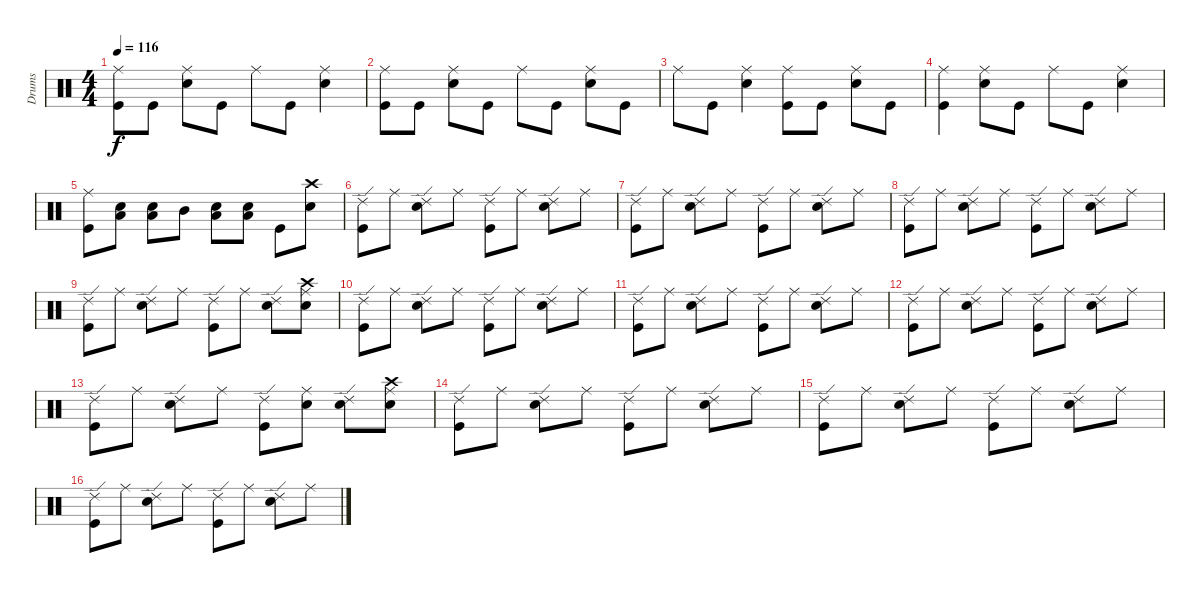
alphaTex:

\track ("Drums" "Drums") {instrument percussion}
\staff {score}
\articulation defaults
\ts (4 4)
\tempo 116
\clef neutral
\ks c
("Ride (middle)" "Kick (hit)").8{dy f} "Kick (hit)".8 ("Ride (middle)" "Electric Snare (hit)").8 "Kick (hit)".8 "Ride (middle)".8 "Kick (hit)".8 ("Ride (middle)" "Electric Snare (hit)").4 |
("Ride (middle)" "Kick (hit)").8 "Kick (hit)".8 ("Ride (middle)" "Electric Snare (hit)").8 "Kick (hit)".8 "Ride (middle)".8 "Kick (hit)".8 ("Ride (middle)" "Electric Snare (hit)").8 "Kick (hit)".8 |
"Ride (middle)".8 "Kick (hit)".8 ("Ride (middle)" "Electric Snare (hit)").4 ("Ride (middle)" "Kick (hit)").8 "Kick (hit)".8 ("Ride (middle)" "Electric Snare (hit)").8 "Kick (hit)".8 |
("Ride (middle)" "Kick (hit)").4 ("Ride (middle)" "Electric Snare (hit)").8 "Kick (hit)".8 "Ride (middle)".8 "Kick (hit)".8 ("Ride (middle)" "Electric Snare (hit)").4 |
("Ride (middle)" "Kick (hit)").8 ("Electric Snare (hit)" "Low Tom (hit)").8 ("Electric Snare (hit)" "Low Tom (hit)").8 "Mid Tom (hit)".8 ("Electric Snare (hit)" "Low Tom (hit)").8 ("Electric Snare (hit)" "Low Tom (hit)").8 "Kick (hit)".8 ("Crash high (hit)" "Electric Snare (hit)").8 |
("Ride (edge) 2" "Kick (hit)").8 "Ride (middle)".8 ("Ride (edge) 2" "Electric Snare (hit)").8 "Ride (middle)".8 ("Ride (edge) 2" "Kick (hit)").8 "Ride (middle)".8 ("Ride (edge) 2" "Electric Snare (hit)").8 "Ride (middle)".8 |
("Ride (edge) 2" "Kick (hit)").8 "Ride (middle)".8 ("Ride (edge) 2" "Electric Snare (hit)").8 "Ride (middle)".8 ("Ride (edge) 2" "Kick (hit)").8 "Ride (middle)".8 ("Ride (edge) 2" "Electric Snare (hit)").8 "Ride (middle)".8 |
("Ride (edge) 2" "Kick (hit)").8 "Ride (middle)".8 ("Ride (edge) 2" "Electric Snare (hit)").8 "Ride (middle)".8 ("Ride (edge) 2" "Kick (hit)").8 "Ride (middle)".8 ("Ride (edge) 2" "Electric Snare (hit)").8 "Ride (middle)".8 |
("Ride (edge) 2" "Kick (hit)").8 "Ride (middle)".8 ("Ride (edge) 2" "Electric Snare (hit)").8 "Ride (middle)".8 ("Ride (edge) 2" "Kick (hit)").8 "Ride (middle)".8 ("Ride (edge) 2" "Electric Snare (hit)").8 ("Crash high (hit)" "Ride (middle)" "Electric Snare (hit)").8 |
("Ride (edge) 2" "Kick (hit)").8 "Ride (middle)".8 ("Ride (edge) 2" "Electric Snare (hit)").8 "Ride (middle)".8 ("Ride (edge) 2" "Kick (hit)").8 "Ride (middle)".8 ("Ride (edge) 2" "Electric Snare (hit)").8 "Ride (middle)".8 |
("Ride (edge) 2" "Kick (hit)").8 "Ride (middle)".8 ("Ride (edge) 2" "Electric Snare (hit)").8 "Ride (middle)".8 ("Ride (edge) 2" "Kick (hit)").8 "Ride (middle)".8 ("Ride (edge) 2" "Electric Snare (hit)").8 "Ride (middle)".8 |
("Ride (edge) 2" "Kick (hit)").8 "Ride (middle)".8 ("Ride (edge) 2" "Electric Snare (hit)").8 "Ride (middle)".8 ("Ride (edge) 2" "Kick (hit)").8 "Ride (middle)".8 ("Ride (edge) 2" "Electric Snare (hit)").8 "Ride (middle)".8 |
("Ride (edge) 2" "Kick (hit)").8 "Ride (middle)".8 ("Ride (edge) 2" "Electric Snare (hit)").8 "Ride (middle)".8 ("Ride (edge) 2" "Kick (hit)").8 ("Ride (middle)" "Electric Snare (hit)").8 ("Ride (edge) 2" "Electric Snare (hit)").8 ("Crash high (hit)" "Ride (middle)" "Electric Snare (hit)").8 |
("Ride (edge) 2" "Kick (hit)").8 "Ride (middle)".8 ("Ride (edge) 2" "Electric Snare (hit)").8 "Ride (middle)".8 ("Ride (edge) 2" "Kick (hit)").8 "Ride (middle)".8 ("Ride (edge) 2" "Electric Snare (hit)").8 "Ride (middle)".8 |
("Ride (edge) 2" "Kick (hit)").8 "Ride (middle)".8 ("Ride (edge) 2" "Electric Snare (hit)").8 "Ride (middle)".8 ("Ride (edge) 2" "Kick (hit)").8 "Ride (middle)".8 ("Ride (edge) 2" "Electric Snare (hit)").8 "Ride (middle)".8 |
("Ride (edge) 2" "Kick (hit)").8 "Ride (middle)".8 ("Ride (edge) 2" "Electric Snare (hit)").8 "Ride (middle)".8 ("Ride (edge) 2" "Kick (hit)").8 "Ride (middle)".8 ("Ride (edge) 2" "Electric Snare (hit)").8 "Ride (middle)".8
